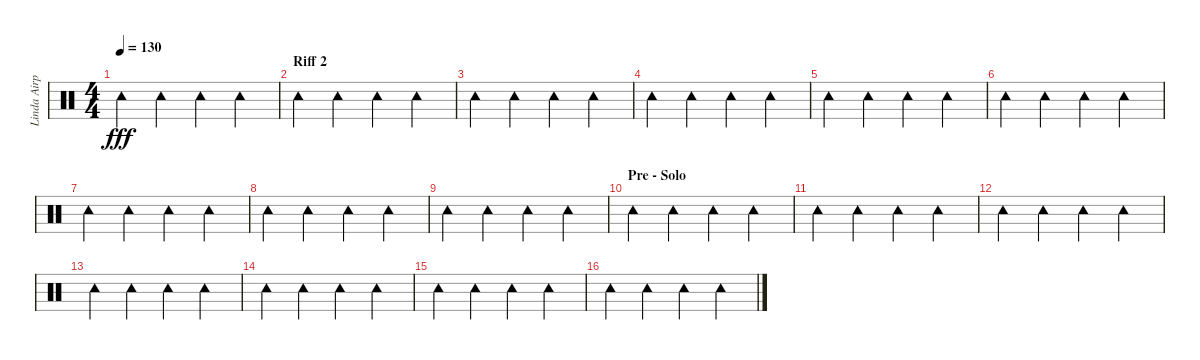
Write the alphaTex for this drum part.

\track ("Linda Airplane" "Linda Airp") {instrument percussion}
\staff {score}
\articulation defaults
\ts (4 4)
\tempo 130
\clef neutral
\ks c "Tambourine (hit)".4{dy fff} "Tambourine (hit)".4 "Tambourine (hit)".4 "Tambourine (hit)".4
|
\section ("" "Riff 2")
"Tambourine (hit)".4 "Tambourine (hit)".4 "Tambourine (hit)".4 "Tambourine (hit)".4 |
"Tambourine (hit)".4 "Tambourine (hit)".4 "Tambourine (hit)".4 "Tambourine (hit)".4 |
"Tambourine (hit)".4 "Tambourine (hit)".4 "Tambourine (hit)".4 "Tambourine (hit)".4 |
"Tambourine (hit)".4 "Tambourine (hit)".4 "Tambourine (hit)".4 "Tambourine (hit)".4 |
"Tambourine (hit)".4 "Tambourine (hit)".4 "Tambourine (hit)".4 "Tambourine (hit)".4 |
"Tambourine (hit)".4 "Tambourine (hit)".4 "Tambourine (hit)".4 "Tambourine (hit)".4 |
"Tambourine (hit)".4 "Tambourine (hit)".4 "Tambourine (hit)".4 "Tambourine (hit)".4 |
"Tambourine (hit)".4 "Tambourine (hit)".4 "Tambourine (hit)".4 "Tambourine (hit)".4 |
\section ("" "Pre - Solo")
"Tambourine (hit)".4 "Tambourine (hit)".4 "Tambourine (hit)".4 "Tambourine (hit)".4 |
"Tambourine (hit)".4 "Tambourine (hit)".4 "Tambourine (hit)".4 "Tambourine (hit)".4 |
"Tambourine (hit)".4 "Tambourine (hit)".4 "Tambourine (hit)".4 "Tambourine (hit)".4 |
"Tambourine (hit)".4 "Tambourine (hit)".4 "Tambourine (hit)".4 "Tambourine (hit)".4 |
"Tambourine (hit)".4 "Tambourine (hit)".4 "Tambourine (hit)".4 "Tambourine (hit)".4 |
"Tambourine (hit)".4 "Tambourine (hit)".4 "Tambourine (hit)".4 "Tambourine (hit)".4 |
"Tambourine (hit)".4 "Tambourine (hit)".4 "Tambourine (hit)".4 "Tambourine (hit)".4
